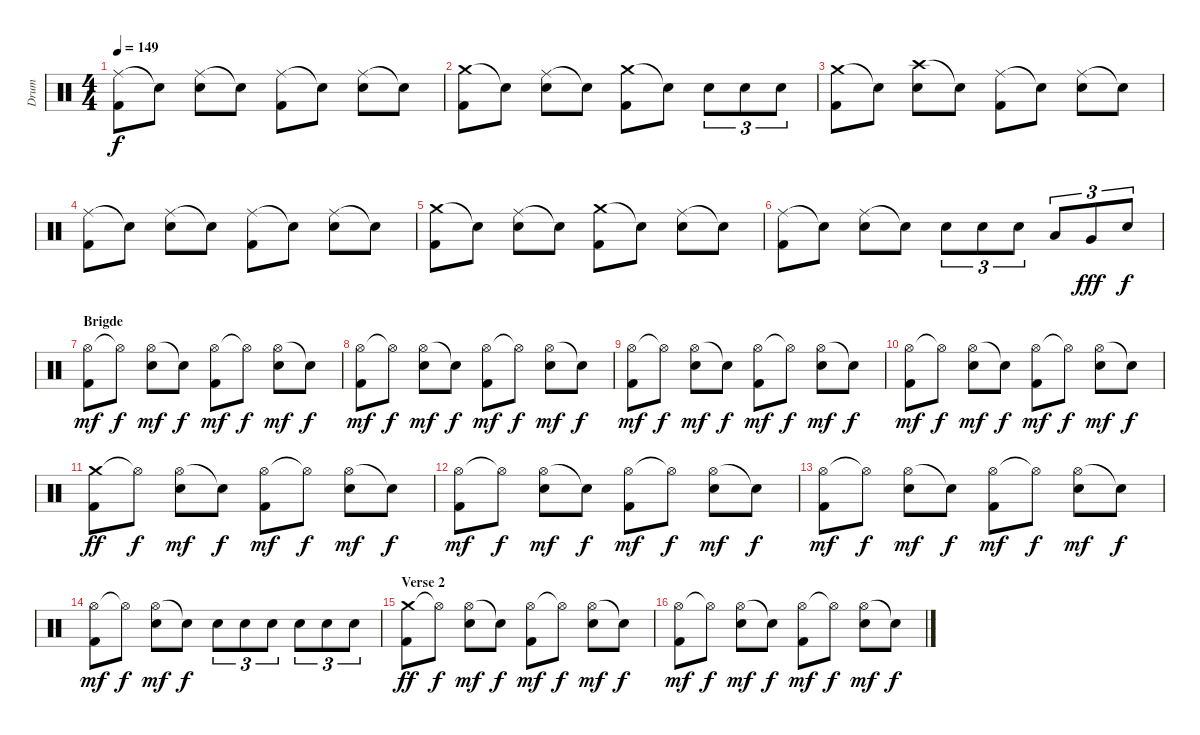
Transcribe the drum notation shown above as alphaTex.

\track ("Drum" "Drum") {instrument percussion}
\staff {score}
\articulation defaults
\ts (4 4)
\tempo 149
\clef neutral
\ks c
("Ride (middle)" "Kick (hit) 2").8{dy f} "Snare (hit)"{t}.8 ("Ride (middle)" "Snare (hit) 2").8 "Snare (hit)"{t}.8 ("Ride (middle)" "Kick (hit) 2").8 "Snare (hit)"{t}.8 ("Ride (middle)" "Snare (hit) 2").8 "Snare (hit)"{t}.8 |
("Crash medium (hit)" "Kick (hit) 2").8 "Snare (hit)"{t}.8 ("Ride (middle)" "Snare (hit) 2").8 "Snare (hit)"{t}.8 ("Crash medium (hit)" "Kick (hit) 2").8 "Snare (hit)"{t}.8 "Snare (hit) 2".8{tu (3 2)} "Snare (hit) 2".8{tu (3 2)} "Snare (hit) 2".8{tu (3 2)} |
("Crash medium (hit)" "Kick (hit) 2").8 "Snare (hit)"{t}.8 ("Crash high (hit)" "Snare (hit) 2").8 "Snare (hit)"{t}.8 ("Ride (middle)" "Kick (hit) 2").8 "Snare (hit)"{t}.8 ("Ride (middle)" "Snare (hit) 2").8 "Snare (hit)"{t}.8 |
("Ride (middle)" "Kick (hit) 2").8 "Snare (hit)"{t}.8 ("Ride (middle)" "Snare (hit) 2").8 "Snare (hit)"{t}.8 ("Ride (middle)" "Kick (hit) 2").8 "Snare (hit)"{t}.8 ("Ride (middle)" "Snare (hit) 2").8 "Snare (hit)"{t}.8 |
("Crash medium (hit)" "Kick (hit) 2").8 "Snare (hit)"{t}.8 ("Ride (middle)" "Snare (hit) 2").8 "Snare (hit)"{t}.8 ("Crash medium (hit)" "Kick (hit) 2").8 "Snare (hit)"{t}.8 ("Ride (middle)" "Snare (hit) 2").8 "Snare (hit)"{t}.8 |
("Ride (middle)" "Kick (hit) 2").8 "Snare (hit)"{t}.8 ("Ride (middle)" "Snare (hit) 2").8 "Snare (hit)"{t}.8 "Snare (hit) 2".8{tu (3 2)} "Snare (hit) 2".8{tu (3 2)} "Snare (hit) 2".8{tu (3 2)} "Low Tom (hit)".8{tu (3 2)} "Very Low Tom (hit)".8{tu (3 2) dy fff} "Snare (hit) 2".8{tu (3 2) dy f} |
\section ("" "Brigde")
("Hi-Hat (open)" "Kick (hit) 2").8{dy mf} "Hi-Hat (open)"{t}.8{dy f} ("Hi-Hat (open)" "Snare (hit) 2").8{dy mf} "Snare (hit)"{t}.8{dy f} ("Hi-Hat (open)" "Kick (hit) 2").8{dy mf} "Hi-Hat (open)"{t}.8{dy f} ("Hi-Hat (open)" "Snare (hit) 2").8{dy mf} "Snare (hit)"{t}.8{dy f} |
("Hi-Hat (open)" "Kick (hit) 2").8{dy mf} "Hi-Hat (open)"{t}.8{dy f} ("Hi-Hat (open)" "Snare (hit) 2").8{dy mf} "Snare (hit)"{t}.8{dy f} ("Hi-Hat (open)" "Kick (hit) 2").8{dy mf} "Hi-Hat (open)"{t}.8{dy f} ("Hi-Hat (open)" "Snare (hit) 2").8{dy mf} "Snare (hit)"{t}.8{dy f} |
("Hi-Hat (open)" "Kick (hit) 2").8{dy mf} "Hi-Hat (open)"{t}.8{dy f} ("Hi-Hat (open)" "Snare (hit) 2").8{dy mf} "Snare (hit)"{t}.8{dy f} ("Hi-Hat (open)" "Kick (hit) 2").8{dy mf} "Hi-Hat (open)"{t}.8{dy f} ("Hi-Hat (open)" "Snare (hit) 2").8{dy mf} "Snare (hit)"{t}.8{dy f} |
("Hi-Hat (open)" "Kick (hit) 2").8{dy mf} "Hi-Hat (open)"{t}.8{dy f} ("Hi-Hat (open)" "Snare (hit) 2").8{dy mf} "Snare (hit)"{t}.8{dy f} ("Hi-Hat (open)" "Kick (hit) 2").8{dy mf} "Hi-Hat (open)"{t}.8{dy f} ("Hi-Hat (open)" "Snare (hit) 2").8{dy mf} "Snare (hit)"{t}.8{dy f} |
("Crash medium (hit)" "Kick (hit) 2").8{dy ff} "Hi-Hat (open)"{t}.8{dy f} ("Hi-Hat (open)" "Snare (hit) 2").8{dy mf} "Snare (hit)"{t}.8{dy f} ("Hi-Hat (open)" "Kick (hit) 2").8{dy mf} "Hi-Hat (open)"{t}.8{dy f} ("Hi-Hat (open)" "Snare (hit) 2").8{dy mf} "Snare (hit)"{t}.8{dy f} |
("Hi-Hat (open)" "Kick (hit) 2").8{dy mf} "Hi-Hat (open)"{t}.8{dy f} ("Hi-Hat (open)" "Snare (hit) 2").8{dy mf} "Snare (hit)"{t}.8{dy f} ("Hi-Hat (open)" "Kick (hit) 2").8{dy mf} "Hi-Hat (open)"{t}.8{dy f} ("Hi-Hat (open)" "Snare (hit) 2").8{dy mf} "Snare (hit)"{t}.8{dy f} |
("Hi-Hat (open)" "Kick (hit) 2").8{dy mf} "Hi-Hat (open)"{t}.8{dy f} ("Hi-Hat (open)" "Snare (hit) 2").8{dy mf} "Snare (hit)"{t}.8{dy f} ("Hi-Hat (open)" "Kick (hit) 2").8{dy mf} "Hi-Hat (open)"{t}.8{dy f} ("Hi-Hat (open)" "Snare (hit) 2").8{dy mf} "Snare (hit)"{t}.8{dy f} |
("Hi-Hat (open)" "Kick (hit) 2").8{dy mf} "Hi-Hat (open)"{t}.8{dy f} ("Hi-Hat (open)" "Snare (hit) 2").8{dy mf} "Snare (hit)"{t}.8{dy f} "Snare (hit) 2".8{tu (3 2)} "Snare (hit) 2".8{tu (3 2)} "Snare (hit) 2".8{tu (3 2)} "Snare (hit) 2".8{tu (3 2)} "Snare (hit) 2".8{tu (3 2)} "Snare (hit) 2".8{tu (3 2)} |
\section ("" "Verse 2")
("Crash medium (hit)" "Kick (hit) 2").8{dy ff} "Hi-Hat (open)"{t}.8{dy f} ("Hi-Hat (open)" "Snare (hit) 2").8{dy mf} "Snare (hit)"{t}.8{dy f} ("Hi-Hat (open)" "Kick (hit) 2").8{dy mf} "Hi-Hat (open)"{t}.8{dy f} ("Hi-Hat (open)" "Snare (hit) 2").8{dy mf} "Snare (hit)"{t}.8{dy f} |
("Hi-Hat (open)" "Kick (hit) 2").8{dy mf} "Hi-Hat (open)"{t}.8{dy f} ("Hi-Hat (open)" "Snare (hit) 2").8{dy mf} "Snare (hit)"{t}.8{dy f} ("Hi-Hat (open)" "Kick (hit) 2").8{dy mf} "Hi-Hat (open)"{t}.8{dy f} ("Hi-Hat (open)" "Snare (hit) 2").8{dy mf} "Snare (hit)"{t}.8{dy f}
